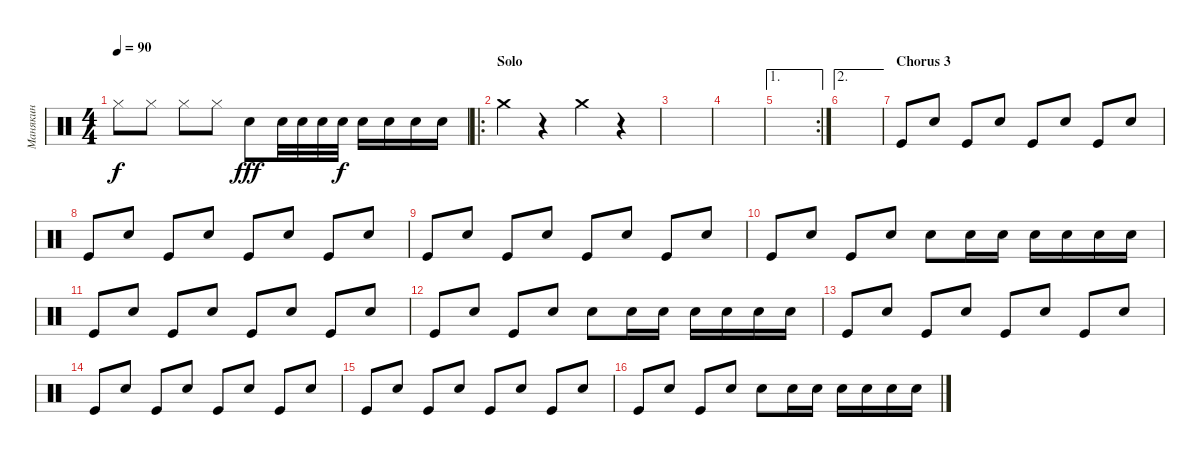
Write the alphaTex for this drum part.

\track ("Манякин" "Манякин") {instrument percussion}
\staff {score}
\articulation defaults
\ts (4 4)
\tempo 90
\clef neutral
\ks c "Hi-Hat (closed)".8{dy f volume 15} "Hi-Hat (closed)".8 "Hi-Hat (closed)".8 "Hi-Hat (closed)".8 "Electric Snare (hit)".8{dy fff} "Electric Snare (hit)".32 "Electric Snare (hit)".32 "Electric Snare (hit)".32 "Electric Snare (hit)".32{dy f} "Electric Snare (hit)".16 "Electric Snare (hit)".16 "Electric Snare (hit)".16 "Electric Snare (hit)".16
|
\ro
\section ("" "Solo")
"Crash medium (hit)".4 r.4 "Crash medium (hit)".4 r.4 |
|
|
\ae 1
\rc 2
|
\ae 2
|
\section ("" "Chorus 3")
"Kick (hit)".8 "Electric Snare (hit)".8 "Kick (hit)".8 "Electric Snare (hit)".8 "Kick (hit)".8 "Electric Snare (hit)".8 "Kick (hit)".8 "Electric Snare (hit)".8 |
"Kick (hit)".8 "Electric Snare (hit)".8 "Kick (hit)".8 "Electric Snare (hit)".8 "Kick (hit)".8 "Electric Snare (hit)".8 "Kick (hit)".8 "Electric Snare (hit)".8 |
"Kick (hit)".8 "Electric Snare (hit)".8 "Kick (hit)".8 "Electric Snare (hit)".8 "Kick (hit)".8 "Electric Snare (hit)".8 "Kick (hit)".8 "Electric Snare (hit)".8 |
"Kick (hit)".8 "Electric Snare (hit)".8 "Kick (hit)".8 "Electric Snare (hit)".8 "Electric Snare (hit)".8 "Electric Snare (hit)".16 "Electric Snare (hit)".16 "Electric Snare (hit)".16 "Electric Snare (hit)".16 "Electric Snare (hit)".16 "Electric Snare (hit)".16 |
"Kick (hit)".8 "Electric Snare (hit)".8 "Kick (hit)".8 "Electric Snare (hit)".8 "Kick (hit)".8 "Electric Snare (hit)".8 "Kick (hit)".8 "Electric Snare (hit)".8 |
"Kick (hit)".8 "Electric Snare (hit)".8 "Kick (hit)".8 "Electric Snare (hit)".8 "Electric Snare (hit)".8 "Electric Snare (hit)".16 "Electric Snare (hit)".16 "Electric Snare (hit)".16 "Electric Snare (hit)".16 "Electric Snare (hit)".16 "Electric Snare (hit)".16 |
"Kick (hit)".8 "Electric Snare (hit)".8 "Kick (hit)".8 "Electric Snare (hit)".8 "Kick (hit)".8 "Electric Snare (hit)".8 "Kick (hit)".8 "Electric Snare (hit)".8 |
"Kick (hit)".8 "Electric Snare (hit)".8 "Kick (hit)".8 "Electric Snare (hit)".8 "Kick (hit)".8 "Electric Snare (hit)".8 "Kick (hit)".8 "Electric Snare (hit)".8 |
"Kick (hit)".8 "Electric Snare (hit)".8 "Kick (hit)".8 "Electric Snare (hit)".8 "Kick (hit)".8 "Electric Snare (hit)".8 "Kick (hit)".8 "Electric Snare (hit)".8 |
"Kick (hit)".8 "Electric Snare (hit)".8 "Kick (hit)".8 "Electric Snare (hit)".8 "Electric Snare (hit)".8 "Electric Snare (hit)".16 "Electric Snare (hit)".16 "Electric Snare (hit)".16 "Electric Snare (hit)".16 "Electric Snare (hit)".16 "Electric Snare (hit)".16
